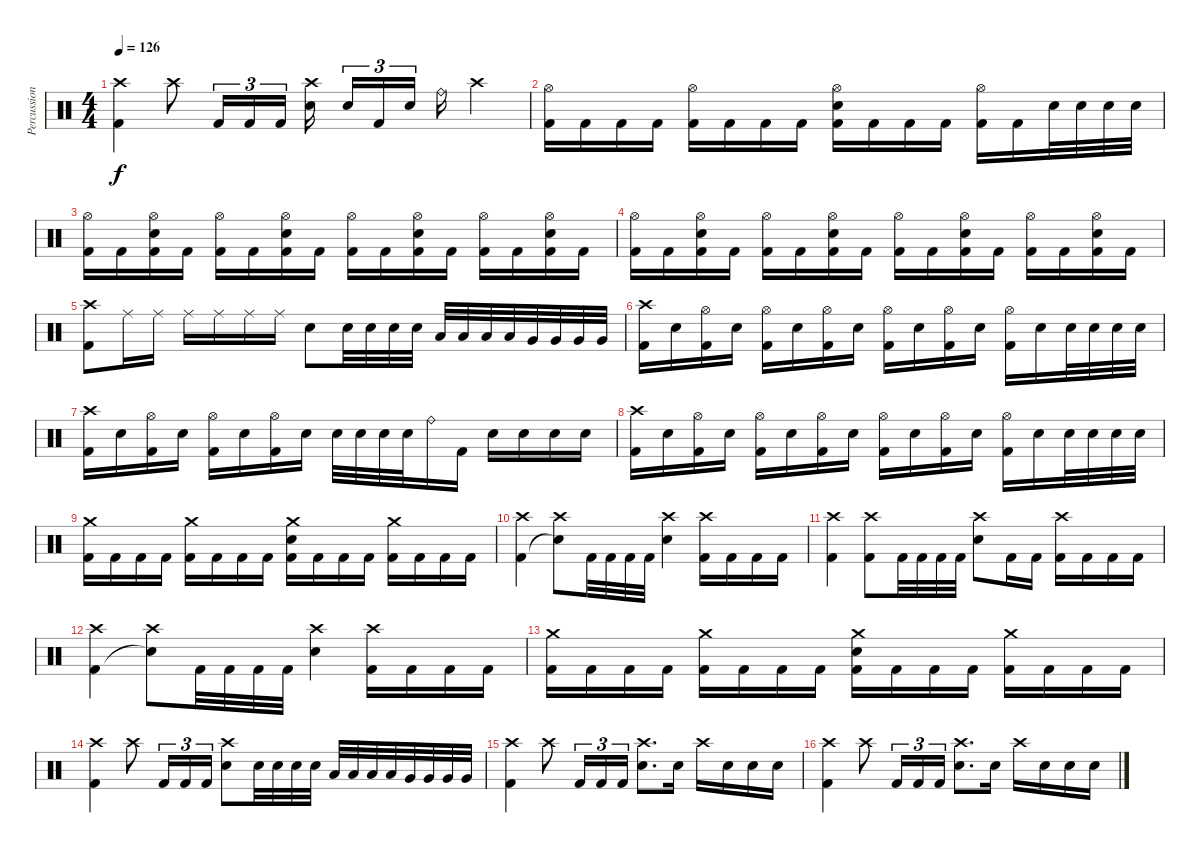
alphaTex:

\track ("Percussion" "Percussion") {instrument percussion}
\staff {score}
\articulation defaults
\ts (4 4)
\tempo 126
\clef neutral
\ks c
("Crash high (hit)" "Kick (hit) 2").4{dy f} "Crash high (hit)".8 "Kick (hit) 2".16{tu (3 2)} "Kick (hit) 2".16{tu (3 2)} "Kick (hit) 2".16{tu (3 2)} ("Crash high (hit)" "Electric Snare (hit)").16{beam splitsecondary} "Electric Snare (hit)".16{tu (3 2)} "Kick (hit) 2".16{tu (3 2)} "Electric Snare (hit)".16{tu (3 2) beam splitsecondary} "Ride (bell)".16 "Crash high (hit)".4 |
("Hi-Hat (open)" "Kick (hit) 2").16 "Kick (hit) 2".16 "Kick (hit) 2".16 "Kick (hit) 2".16 ("Hi-Hat (open)" "Kick (hit) 2").16 "Kick (hit) 2".16 "Kick (hit) 2".16 "Kick (hit) 2".16 ("Hi-Hat (open)" "Electric Snare (hit)" "Kick (hit) 2").16 "Kick (hit) 2".16 "Kick (hit) 2".16 "Kick (hit) 2".16 ("Hi-Hat (open)" "Kick (hit) 2").16 "Kick (hit) 2".16 "Electric Snare (hit)".32 "Electric Snare (hit)".32 "Electric Snare (hit)".32 "Electric Snare (hit)".32 |
("Hi-Hat (open)" "Kick (hit) 2").16 "Kick (hit) 2".16 ("Hi-Hat (open)" "Electric Snare (hit)" "Kick (hit) 2").16 "Kick (hit) 2".16 ("Hi-Hat (open)" "Kick (hit) 2").16 "Kick (hit) 2".16 ("Hi-Hat (open)" "Electric Snare (hit)" "Kick (hit) 2").16 "Kick (hit) 2".16 ("Hi-Hat (open)" "Kick (hit) 2").16 "Kick (hit) 2".16 ("Hi-Hat (open)" "Electric Snare (hit)" "Kick (hit) 2").16 "Kick (hit) 2".16 ("Hi-Hat (open)" "Kick (hit) 2").16 "Kick (hit) 2".16 ("Hi-Hat (open)" "Electric Snare (hit)" "Kick (hit) 2").16 "Kick (hit) 2".16 |
("Hi-Hat (open)" "Kick (hit) 2").16 "Kick (hit) 2".16 ("Hi-Hat (open)" "Electric Snare (hit)" "Kick (hit) 2").16 "Kick (hit) 2".16 ("Hi-Hat (open)" "Kick (hit) 2").16 "Kick (hit) 2".16 ("Hi-Hat (open)" "Electric Snare (hit)" "Kick (hit) 2").16 "Kick (hit) 2".16 ("Hi-Hat (open)" "Kick (hit) 2").16 "Kick (hit) 2".16 ("Hi-Hat (open)" "Electric Snare (hit)" "Kick (hit) 2").16 "Kick (hit) 2".16 ("Hi-Hat (open)" "Kick (hit) 2").16 "Kick (hit) 2".16 ("Hi-Hat (open)" "Electric Snare (hit)" "Kick (hit) 2").16 "Kick (hit) 2".16 |
("Crash high (hit)" "Kick (hit) 2").8 "Ride (middle)".16 "Ride (middle)".16 "Ride (middle)".16 "Ride (middle)".16 "Ride (middle)".16 "Ride (middle)".16 "Electric Snare (hit)".8 "Electric Snare (hit)".32 "Electric Snare (hit)".32 "Electric Snare (hit)".32 "Electric Snare (hit)".32 "Low Tom (hit)".32 "Low Tom (hit)".32 "Low Tom (hit)".32 "Low Tom (hit)".32 "Very Low Tom (hit)".32 "Very Low Tom (hit)".32 "Very Low Tom (hit)".32 "Very Low Tom (hit)".32 |
("Crash high (hit)" "Kick (hit) 2").16 "Electric Snare (hit)".16 ("Hi-Hat (open)" "Kick (hit) 2").16 "Electric Snare (hit)".16 ("Hi-Hat (open)" "Kick (hit) 2").16 "Electric Snare (hit)".16 ("Hi-Hat (open)" "Kick (hit) 2").16 "Electric Snare (hit)".16 ("Hi-Hat (open)" "Kick (hit) 2").16 "Electric Snare (hit)".16 ("Hi-Hat (open)" "Kick (hit) 2").16 "Electric Snare (hit)".16 ("Hi-Hat (open)" "Kick (hit) 2").16 "Electric Snare (hit)".16 "Electric Snare (hit)".32 "Electric Snare (hit)".32 "Electric Snare (hit)".32 "Electric Snare (hit)".32 |
("Crash high (hit)" "Kick (hit) 2").16 "Electric Snare (hit)".16 ("Hi-Hat (open)" "Kick (hit) 2").16 "Electric Snare (hit)".16 ("Hi-Hat (open)" "Kick (hit) 2").16 "Electric Snare (hit)".16 ("Hi-Hat (open)" "Kick (hit) 2").16 "Electric Snare (hit)".16 "Electric Snare (hit)".32 "Electric Snare (hit)".32 "Electric Snare (hit)".32 "Electric Snare (hit)".32 "Ride (bell)".16 "Kick (hit) 2".16 "Electric Snare (hit)".16 "Electric Snare (hit)".16 "Electric Snare (hit)".16 "Electric Snare (hit)".16 |
("Crash high (hit)" "Kick (hit) 2").16 "Electric Snare (hit)".16 ("Hi-Hat (open)" "Kick (hit) 2").16 "Electric Snare (hit)".16 ("Hi-Hat (open)" "Kick (hit) 2").16 "Electric Snare (hit)".16 ("Hi-Hat (open)" "Kick (hit) 2").16 "Electric Snare (hit)".16 ("Hi-Hat (open)" "Kick (hit) 2").16 "Electric Snare (hit)".16 ("Hi-Hat (open)" "Kick (hit) 2").16 "Electric Snare (hit)".16 ("Hi-Hat (open)" "Kick (hit) 2").16 "Electric Snare (hit)".16 "Electric Snare (hit)".32 "Electric Snare (hit)".32 "Electric Snare (hit)".32 "Electric Snare (hit)".32 |
("Crash medium (hit)" "Kick (hit) 2").16 "Kick (hit) 2".16 "Kick (hit) 2".16 "Kick (hit) 2".16 ("Crash medium (hit)" "Kick (hit) 2").16 "Kick (hit) 2".16 "Kick (hit) 2".16 "Kick (hit) 2".16 ("Crash medium (hit)" "Electric Snare (hit)" "Kick (hit) 2").16 "Kick (hit) 2".16 "Kick (hit) 2".16 "Kick (hit) 2".16 ("Crash medium (hit)" "Kick (hit) 2").16 "Kick (hit) 2".16 "Kick (hit) 2".16 "Kick (hit) 2".16 |
("Crash high (hit)" "Kick (hit) 2").4 ("Crash high (hit)" "Snare (hit)"{t}).8 "Kick (hit) 2".32 "Kick (hit) 2".32 "Kick (hit) 2".32 "Kick (hit) 2".32 ("Crash high (hit)" "Electric Snare (hit)").4 ("Crash high (hit)" "Kick (hit) 2").16 "Kick (hit) 2".16 "Kick (hit) 2".16 "Kick (hit) 2".16 |
("Crash high (hit)" "Kick (hit) 2").4 ("Crash high (hit)" "Kick (hit) 2").8 "Kick (hit) 2".32 "Kick (hit) 2".32 "Kick (hit) 2".32 "Kick (hit) 2".32 ("Crash high (hit)" "Electric Snare (hit)").8 "Kick (hit) 2".16 "Kick (hit) 2".16 ("Crash high (hit)" "Kick (hit) 2").16 "Kick (hit) 2".16 "Kick (hit) 2".16 "Kick (hit) 2".16 |
("Crash high (hit)" "Kick (hit) 2").4 ("Crash high (hit)" "Snare (hit)"{t}).8 "Kick (hit) 2".32 "Kick (hit) 2".32 "Kick (hit) 2".32 "Kick (hit) 2".32 ("Crash high (hit)" "Electric Snare (hit)").4 ("Crash high (hit)" "Kick (hit) 2").16 "Kick (hit) 2".16 "Kick (hit) 2".16 "Kick (hit) 2".16 |
("Crash medium (hit)" "Kick (hit) 2").16 "Kick (hit) 2".16 "Kick (hit) 2".16 "Kick (hit) 2".16 ("Crash medium (hit)" "Kick (hit) 2").16 "Kick (hit) 2".16 "Kick (hit) 2".16 "Kick (hit) 2".16 ("Crash medium (hit)" "Electric Snare (hit)" "Kick (hit) 2").16 "Kick (hit) 2".16 "Kick (hit) 2".16 "Kick (hit) 2".16 ("Crash medium (hit)" "Kick (hit) 2").16 "Kick (hit) 2".16 "Kick (hit) 2".16 "Kick (hit) 2".16 |
("Crash high (hit)" "Kick (hit) 2").4 "Crash high (hit)".8 "Kick (hit) 2".16{tu (3 2)} "Kick (hit) 2".16{tu (3 2)} "Kick (hit) 2".16{tu (3 2)} ("Crash high (hit)" "Electric Snare (hit)").8 "Electric Snare (hit)".32 "Electric Snare (hit)".32 "Electric Snare (hit)".32 "Electric Snare (hit)".32 "Low Tom (hit)".32 "Low Tom (hit)".32 "Low Tom (hit)".32 "Low Tom (hit)".32 "Very Low Tom (hit)".32 "Very Low Tom (hit)".32 "Very Low Tom (hit)".32 "Very Low Tom (hit)".32 |
("Crash high (hit)" "Kick (hit) 2").4 "Crash high (hit)".8 "Kick (hit) 2".16{tu (3 2)} "Kick (hit) 2".16{tu (3 2)} "Kick (hit) 2".16{tu (3 2)} ("Crash high (hit)" "Electric Snare (hit)").8{d} "Electric Snare (hit)".16 "Crash high (hit)".16 "Electric Snare (hit)".16 "Electric Snare (hit)".16 "Electric Snare (hit)".16 |
("Crash high (hit)" "Kick (hit) 2").4 "Crash high (hit)".8 "Kick (hit) 2".16{tu (3 2)} "Kick (hit) 2".16{tu (3 2)} "Kick (hit) 2".16{tu (3 2)} ("Crash high (hit)" "Electric Snare (hit)").8{d} "Electric Snare (hit)".16 "Crash high (hit)".16 "Electric Snare (hit)".16 "Electric Snare (hit)".16 "Electric Snare (hit)".16
